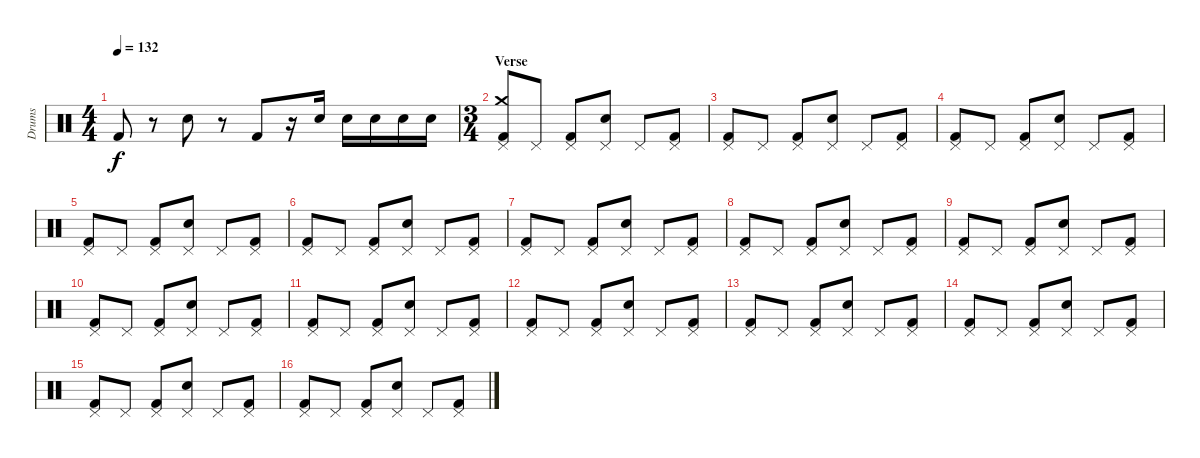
\track ("Drums" "Drums") {instrument percussion}
\staff {score}
\articulation defaults
\ts (4 4)
\tempo 132
\clef neutral
\ks c "Kick (hit) 2".8{dy f}
r.8 "Electric Snare (hit)".8 r.8 "Kick (hit) 2".8 r.16 "Electric Snare (hit)".16 "Electric Snare (hit)".16 "Electric Snare (hit)".16 "Electric Snare (hit)".16 "Electric Snare (hit)".16 |
\ts (3 4)
\section ("" "Verse")
("Crash medium (hit)" "Pedal Hi-Hat (hit)" "Kick (hit) 2").8 "Pedal Hi-Hat (hit)".8 ("Pedal Hi-Hat (hit)" "Kick (hit) 2").8 ("Pedal Hi-Hat (hit)" "Electric Snare (hit)").8 "Pedal Hi-Hat (hit)".8 ("Pedal Hi-Hat (hit)" "Kick (hit) 2").8 |
("Pedal Hi-Hat (hit)" "Kick (hit) 2").8 "Pedal Hi-Hat (hit)".8 ("Pedal Hi-Hat (hit)" "Kick (hit) 2").8 ("Pedal Hi-Hat (hit)" "Electric Snare (hit)").8 "Pedal Hi-Hat (hit)".8 ("Pedal Hi-Hat (hit)" "Kick (hit) 2").8 |
("Pedal Hi-Hat (hit)" "Kick (hit) 2").8 "Pedal Hi-Hat (hit)".8 ("Pedal Hi-Hat (hit)" "Kick (hit) 2").8 ("Pedal Hi-Hat (hit)" "Electric Snare (hit)").8 "Pedal Hi-Hat (hit)".8 ("Pedal Hi-Hat (hit)" "Kick (hit) 2").8 |
("Pedal Hi-Hat (hit)" "Kick (hit) 2").8 "Pedal Hi-Hat (hit)".8 ("Pedal Hi-Hat (hit)" "Kick (hit) 2").8 ("Pedal Hi-Hat (hit)" "Electric Snare (hit)").8 "Pedal Hi-Hat (hit)".8 ("Pedal Hi-Hat (hit)" "Kick (hit) 2").8 |
("Pedal Hi-Hat (hit)" "Kick (hit) 2").8 "Pedal Hi-Hat (hit)".8 ("Pedal Hi-Hat (hit)" "Kick (hit) 2").8 ("Pedal Hi-Hat (hit)" "Electric Snare (hit)").8 "Pedal Hi-Hat (hit)".8 ("Pedal Hi-Hat (hit)" "Kick (hit) 2").8 |
("Pedal Hi-Hat (hit)" "Kick (hit) 2").8 "Pedal Hi-Hat (hit)".8 ("Pedal Hi-Hat (hit)" "Kick (hit) 2").8 ("Pedal Hi-Hat (hit)" "Electric Snare (hit)").8 "Pedal Hi-Hat (hit)".8 ("Pedal Hi-Hat (hit)" "Kick (hit) 2").8 |
("Pedal Hi-Hat (hit)" "Kick (hit) 2").8 "Pedal Hi-Hat (hit)".8 ("Pedal Hi-Hat (hit)" "Kick (hit) 2").8 ("Pedal Hi-Hat (hit)" "Electric Snare (hit)").8 "Pedal Hi-Hat (hit)".8 ("Pedal Hi-Hat (hit)" "Kick (hit) 2").8 |
("Pedal Hi-Hat (hit)" "Kick (hit) 2").8 "Pedal Hi-Hat (hit)".8 ("Pedal Hi-Hat (hit)" "Kick (hit) 2").8 ("Pedal Hi-Hat (hit)" "Electric Snare (hit)").8 "Pedal Hi-Hat (hit)".8 ("Pedal Hi-Hat (hit)" "Kick (hit) 2").8 |
("Pedal Hi-Hat (hit)" "Kick (hit) 2").8 "Pedal Hi-Hat (hit)".8 ("Pedal Hi-Hat (hit)" "Kick (hit) 2").8 ("Pedal Hi-Hat (hit)" "Electric Snare (hit)").8 "Pedal Hi-Hat (hit)".8 ("Pedal Hi-Hat (hit)" "Kick (hit) 2").8 |
("Pedal Hi-Hat (hit)" "Kick (hit) 2").8 "Pedal Hi-Hat (hit)".8 ("Pedal Hi-Hat (hit)" "Kick (hit) 2").8 ("Pedal Hi-Hat (hit)" "Electric Snare (hit)").8 "Pedal Hi-Hat (hit)".8 ("Pedal Hi-Hat (hit)" "Kick (hit) 2").8 |
("Pedal Hi-Hat (hit)" "Kick (hit) 2").8 "Pedal Hi-Hat (hit)".8 ("Pedal Hi-Hat (hit)" "Kick (hit) 2").8 ("Pedal Hi-Hat (hit)" "Electric Snare (hit)").8 "Pedal Hi-Hat (hit)".8 ("Pedal Hi-Hat (hit)" "Kick (hit) 2").8 |
("Pedal Hi-Hat (hit)" "Kick (hit) 2").8 "Pedal Hi-Hat (hit)".8 ("Pedal Hi-Hat (hit)" "Kick (hit) 2").8 ("Pedal Hi-Hat (hit)" "Electric Snare (hit)").8 "Pedal Hi-Hat (hit)".8 ("Pedal Hi-Hat (hit)" "Kick (hit) 2").8 |
("Pedal Hi-Hat (hit)" "Kick (hit) 2").8 "Pedal Hi-Hat (hit)".8 ("Pedal Hi-Hat (hit)" "Kick (hit) 2").8 ("Pedal Hi-Hat (hit)" "Electric Snare (hit)").8 "Pedal Hi-Hat (hit)".8 ("Pedal Hi-Hat (hit)" "Kick (hit) 2").8 |
("Pedal Hi-Hat (hit)" "Kick (hit) 2").8 "Pedal Hi-Hat (hit)".8 ("Pedal Hi-Hat (hit)" "Kick (hit) 2").8 ("Pedal Hi-Hat (hit)" "Electric Snare (hit)").8 "Pedal Hi-Hat (hit)".8 ("Pedal Hi-Hat (hit)" "Kick (hit) 2").8 |
("Pedal Hi-Hat (hit)" "Kick (hit) 2").8 "Pedal Hi-Hat (hit)".8 ("Pedal Hi-Hat (hit)" "Kick (hit) 2").8 ("Pedal Hi-Hat (hit)" "Electric Snare (hit)").8 "Pedal Hi-Hat (hit)".8 ("Pedal Hi-Hat (hit)" "Kick (hit) 2").8
